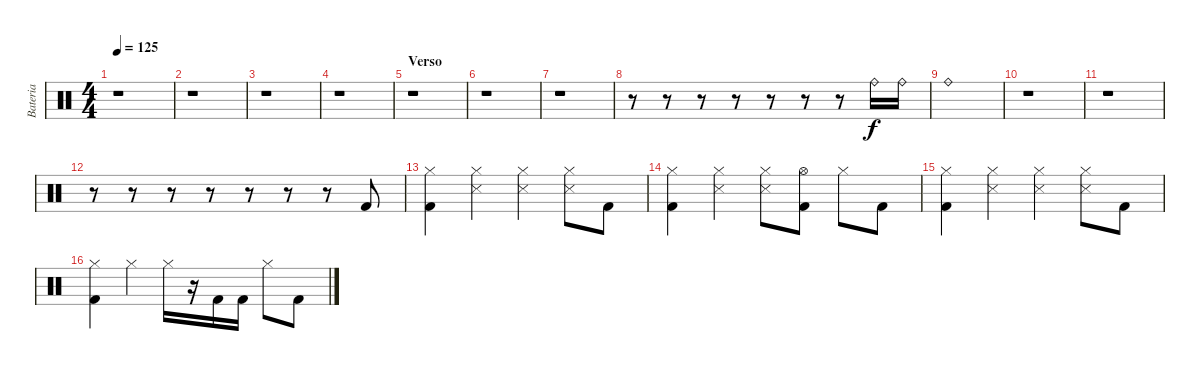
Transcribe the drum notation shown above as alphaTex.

\track ("Bateria" "Bateria") {instrument percussion}
\staff {score}
\articulation defaults
\ts (4 4)
\tempo 125
\clef neutral
\ks c
r.1{dy f} |
r.1 |
r.1 |
r.1 |
\section ("" "Verso ")
r.1 |
r.1 |
r.1 |
r.8 r.8 r.8 r.8 r.8 r.8 r.8 "Ride (bell)".16 "Ride (bell)".16 |
"Ride (bell)".1 |
r.1 |
r.1 |
r.8 r.8 r.8 r.8 r.8 r.8 r.8 "Kick (hit) 2".8 |
("Kick (hit) 2" "Hi-Hat (closed)").4 ("Snare (side stick) 3" "Hi-Hat (closed)").4 ("Snare (side stick) 3" "Hi-Hat (closed)").4 ("Snare (side stick) 3" "Hi-Hat (closed)").8 "Kick (hit) 2".8 |
("Kick (hit) 2" "Hi-Hat (closed)").4 ("Snare (side stick) 3" "Hi-Hat (closed)").4 ("Snare (side stick) 3" "Hi-Hat (closed)").8 ("Kick (hit) 2" "Hi-Hat (open)").8 "Hi-Hat (closed)".8 "Kick (hit) 2".8 |
("Kick (hit) 2" "Hi-Hat (closed)").4 ("Snare (side stick) 3" "Hi-Hat (closed)").4 ("Snare (side stick) 3" "Hi-Hat (closed)").4 ("Snare (side stick) 3" "Hi-Hat (closed)").8 "Kick (hit) 2".8 |
("Kick (hit) 2" "Hi-Hat (closed)").4 "Hi-Hat (closed)".4 "Hi-Hat (closed)".16 r.16 "Kick (hit) 2".16 "Kick (hit) 2".16 "Hi-Hat (closed)".8 "Kick (hit) 2".8
